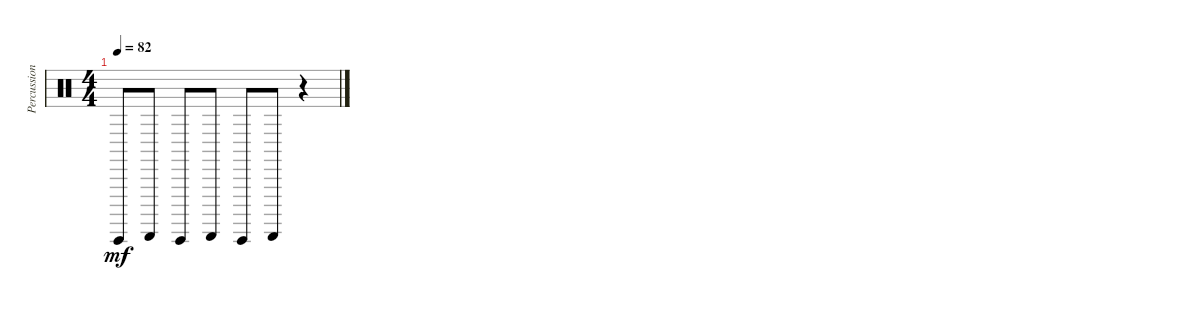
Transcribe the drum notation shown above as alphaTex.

\track ("Percussion/Effects" "Percussion") {instrument percussion}
\staff {score}
\articulation defaults
\ts (4 4)
\tempo 82
\clef neutral
\ks c "Guiro (hit)".8{dy mf} "Guiro (scrap-return)".8 "Guiro (hit)".8 "Guiro (scrap-return)".8 "Guiro (hit)".8 "Guiro (scrap-return)".8
r.4
